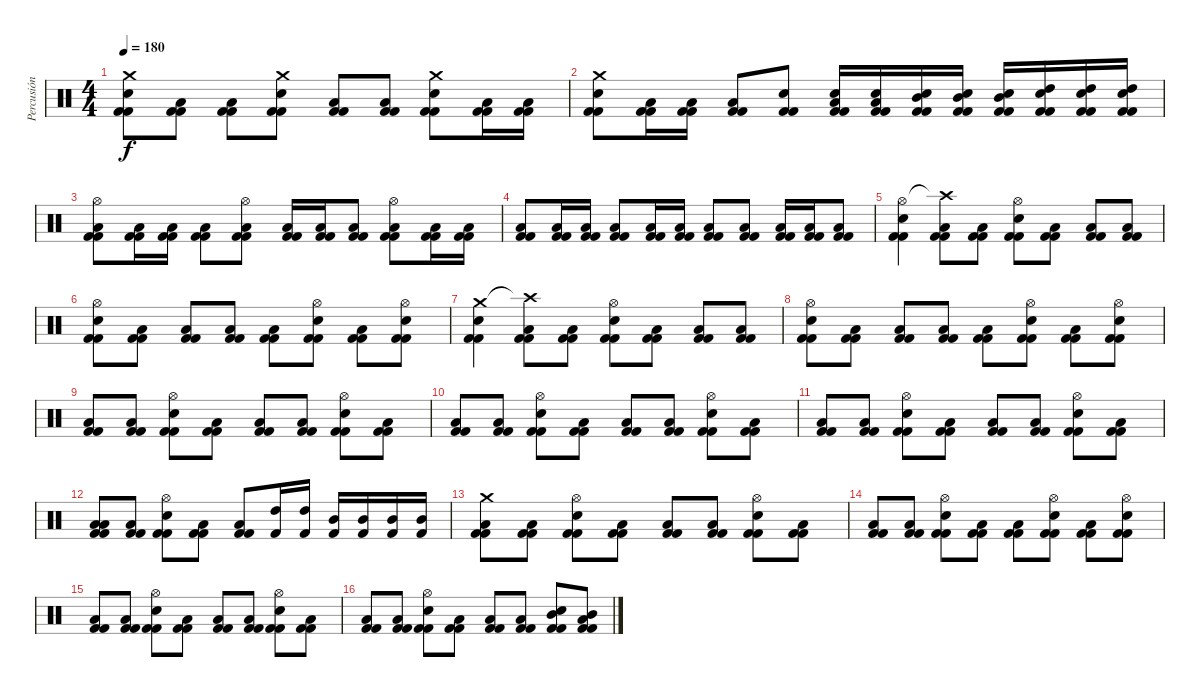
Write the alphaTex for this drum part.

\track ("Percusión" "Percusión") {instrument percussion}
\staff {score}
\articulation defaults
\ts (4 4)
\tempo 180
\clef neutral
\ks c
("Crash medium (hit)" "Kick (hit) 2" "Kick (hit) 2" "Snare (hit) 2").8{dy f} ("Kick (hit) 2" "Kick (hit) 2" "Low Floor Tom (hit)").8 ("Kick (hit) 2" "Kick (hit) 2" "Low Floor Tom (hit)").8 ("Crash medium (hit)" "Kick (hit) 2" "Kick (hit) 2" "Snare (hit) 2").8 ("Kick (hit) 2" "Kick (hit) 2" "Low Floor Tom (hit)").8 ("Kick (hit) 2" "Kick (hit) 2" "Low Floor Tom (hit)").8 ("Crash medium (hit)" "Kick (hit) 2" "Kick (hit) 2" "Snare (hit) 2").8 ("Kick (hit) 2" "Kick (hit) 2" "Low Floor Tom (hit)").16 ("Kick (hit) 2" "Kick (hit) 2" "Low Floor Tom (hit)").16 |
("Crash medium (hit)" "Kick (hit) 2" "Kick (hit) 2" "Snare (hit) 2").8 ("Kick (hit) 2" "Kick (hit) 2" "Low Floor Tom (hit)").16 ("Kick (hit) 2" "Kick (hit) 2" "Low Floor Tom (hit)").16 ("Kick (hit) 2" "Kick (hit) 2" "Low Floor Tom (hit)").8 ("Kick (hit) 2" "Kick (hit) 2" "Snare (hit) 2").8 ("Snare (hit) 2" "Kick (hit) 2" "Kick (hit) 2" "Low Tom (hit)").16 ("Snare (hit) 2" "Kick (hit) 2" "Kick (hit) 2" "Low Tom (hit)").16 ("Snare (hit) 2" "Kick (hit) 2" "Kick (hit) 2" "Mid Tom (hit)").16 ("Snare (hit) 2" "Kick (hit) 2" "Kick (hit) 2" "Mid Tom (hit)").16 ("Electric Snare (hit)" "Kick (hit) 2" "Kick (hit) 2" "Mid Tom (hit)").16 ("Electric Snare (hit)" "Kick (hit) 2" "Kick (hit) 2" "High Tom (hit)").16 ("Electric Snare (hit)" "Kick (hit) 2" "Kick (hit) 2" "High Tom (hit)").16 ("Electric Snare (hit)" "Kick (hit) 2" "Kick (hit) 2" "High Tom (hit)").16 |
("Hi-Hat (open)" "Kick (hit) 2" "Kick (hit) 2" "Low Floor Tom (hit)").8 ("Kick (hit) 2" "Kick (hit) 2" "Low Floor Tom (hit)").16 ("Kick (hit) 2" "Kick (hit) 2" "Low Floor Tom (hit)").16 ("Kick (hit) 2" "Kick (hit) 2" "Low Floor Tom (hit)").8 ("Hi-Hat (open)" "Kick (hit) 2" "Kick (hit) 2" "Low Floor Tom (hit)").8 ("Kick (hit) 2" "Kick (hit) 2" "Low Floor Tom (hit)").16 ("Kick (hit) 2" "Kick (hit) 2" "Low Floor Tom (hit)").16 ("Kick (hit) 2" "Kick (hit) 2" "Low Floor Tom (hit)").8 ("Hi-Hat (open)" "Kick (hit) 2" "Kick (hit) 2" "Low Floor Tom (hit)").8 ("Kick (hit) 2" "Kick (hit) 2" "Low Floor Tom (hit)").16 ("Kick (hit) 2" "Kick (hit) 2" "Low Floor Tom (hit)").16 |
("Kick (hit) 2" "Kick (hit) 2" "Low Floor Tom (hit)").8 ("Kick (hit) 2" "Kick (hit) 2" "Low Floor Tom (hit)").16 ("Kick (hit) 2" "Kick (hit) 2" "Low Floor Tom (hit)").16 ("Kick (hit) 2" "Kick (hit) 2" "Low Floor Tom (hit)").8 ("Kick (hit) 2" "Kick (hit) 2" "Low Floor Tom (hit)").16 ("Kick (hit) 2" "Kick (hit) 2" "Low Floor Tom (hit)").16 ("Kick (hit) 2" "Kick (hit) 2" "Low Floor Tom (hit)").8 ("Kick (hit) 2" "Kick (hit) 2" "Low Floor Tom (hit)").8 ("Kick (hit) 2" "Kick (hit) 2" "Low Floor Tom (hit)").16 ("Kick (hit) 2" "Kick (hit) 2" "Low Floor Tom (hit)").16 ("Kick (hit) 2" "Kick (hit) 2" "Low Floor Tom (hit)").8 |
("Hi-Hat (open)" "Kick (hit) 2" "Kick (hit) 2" "Snare (hit) 2").4 ("Crash high (hit)"{t} "Kick (hit) 2" "Kick (hit) 2" "Low Floor Tom (hit)").8 ("Kick (hit) 2" "Kick (hit) 2" "Low Floor Tom (hit)").8 ("Hi-Hat (open)" "Kick (hit) 2" "Kick (hit) 2" "Snare (hit) 2").8 ("Kick (hit) 2" "Kick (hit) 2" "Low Floor Tom (hit)").8 ("Kick (hit) 2" "Kick (hit) 2" "Low Floor Tom (hit)").8 ("Kick (hit) 2" "Kick (hit) 2" "Low Floor Tom (hit)").8 |
("Hi-Hat (open)" "Kick (hit) 2" "Kick (hit) 2" "Snare (hit) 2").8 ("Kick (hit) 2" "Kick (hit) 2" "Low Floor Tom (hit)").8 ("Kick (hit) 2" "Kick (hit) 2" "Low Floor Tom (hit)").8 ("Kick (hit) 2" "Kick (hit) 2" "Low Floor Tom (hit)").8 ("Kick (hit) 2" "Kick (hit) 2" "Low Floor Tom (hit)").8 ("Hi-Hat (open)" "Kick (hit) 2" "Kick (hit) 2" "Snare (hit) 2").8 ("Kick (hit) 2" "Kick (hit) 2" "Low Floor Tom (hit)").8 ("Hi-Hat (open)" "Kick (hit) 2" "Kick (hit) 2" "Snare (hit) 2").8 |
("Crash medium (hit)" "Kick (hit) 2" "Kick (hit) 2" "Snare (hit) 2").4 ("Crash high (hit)"{t} "Kick (hit) 2" "Kick (hit) 2" "Low Floor Tom (hit)").8 ("Kick (hit) 2" "Kick (hit) 2" "Low Floor Tom (hit)").8 ("Hi-Hat (open)" "Kick (hit) 2" "Kick (hit) 2" "Snare (hit) 2").8 ("Kick (hit) 2" "Kick (hit) 2" "Low Floor Tom (hit)").8 ("Kick (hit) 2" "Kick (hit) 2" "Low Floor Tom (hit)").8 ("Kick (hit) 2" "Kick (hit) 2" "Low Floor Tom (hit)").8 |
("Hi-Hat (open)" "Kick (hit) 2" "Kick (hit) 2" "Snare (hit) 2").8 ("Kick (hit) 2" "Kick (hit) 2" "Low Floor Tom (hit)").8 ("Kick (hit) 2" "Kick (hit) 2" "Low Floor Tom (hit)").8 ("Kick (hit) 2" "Kick (hit) 2" "Low Floor Tom (hit)").8 ("Kick (hit) 2" "Kick (hit) 2" "Low Floor Tom (hit)").8 ("Hi-Hat (open)" "Kick (hit) 2" "Kick (hit) 2" "Snare (hit) 2").8 ("Kick (hit) 2" "Kick (hit) 2" "Low Floor Tom (hit)").8 ("Hi-Hat (open)" "Kick (hit) 2" "Kick (hit) 2" "Snare (hit) 2").8 |
("Kick (hit) 2" "Kick (hit) 2" "Low Floor Tom (hit)").8 ("Kick (hit) 2" "Kick (hit) 2" "Low Floor Tom (hit)").8 ("Hi-Hat (open)" "Kick (hit) 2" "Kick (hit) 2" "Snare (hit) 2").8 ("Kick (hit) 2" "Kick (hit) 2" "Low Floor Tom (hit)").8 ("Kick (hit) 2" "Kick (hit) 2" "Low Floor Tom (hit)").8 ("Kick (hit) 2" "Kick (hit) 2" "Low Floor Tom (hit)").8 ("Hi-Hat (open)" "Kick (hit) 2" "Kick (hit) 2" "Snare (hit) 2").8 ("Kick (hit) 2" "Kick (hit) 2" "Low Floor Tom (hit)").8 |
("Kick (hit) 2" "Kick (hit) 2" "Low Floor Tom (hit)").8 ("Kick (hit) 2" "Kick (hit) 2" "Low Floor Tom (hit)").8 ("Hi-Hat (open)" "Kick (hit) 2" "Kick (hit) 2" "Snare (hit) 2").8 ("Kick (hit) 2" "Kick (hit) 2" "Low Floor Tom (hit)").8 ("Kick (hit) 2" "Kick (hit) 2" "Low Floor Tom (hit)").8 ("Kick (hit) 2" "Kick (hit) 2" "Low Floor Tom (hit)").8 ("Hi-Hat (open)" "Kick (hit) 2" "Kick (hit) 2" "Snare (hit) 2").8 ("Kick (hit) 2" "Kick (hit) 2" "Low Floor Tom (hit)").8 |
("Kick (hit) 2" "Kick (hit) 2" "Low Floor Tom (hit)").8 ("Kick (hit) 2" "Kick (hit) 2" "Low Floor Tom (hit)").8 ("Hi-Hat (open)" "Kick (hit) 2" "Kick (hit) 2" "Snare (hit) 2").8 ("Kick (hit) 2" "Kick (hit) 2" "Low Floor Tom (hit)").8 ("Kick (hit) 2" "Kick (hit) 2" "Low Floor Tom (hit)").8 ("Kick (hit) 2" "Kick (hit) 2" "Low Floor Tom (hit)").8 ("Hi-Hat (open)" "Kick (hit) 2" "Kick (hit) 2" "Snare (hit) 2").8 ("Kick (hit) 2" "Kick (hit) 2" "Low Floor Tom (hit)").8 |
("Low Floor Tom (hit)" "Kick (hit) 2" "Kick (hit) 2" "Low Floor Tom (hit)").8 ("Kick (hit) 2" "Kick (hit) 2" "Low Floor Tom (hit)").8 ("Hi-Hat (open)" "Kick (hit) 2" "Kick (hit) 2" "Snare (hit) 2").8 ("Kick (hit) 2" "Kick (hit) 2" "Low Floor Tom (hit)").8 ("Kick (hit) 2" "Kick (hit) 2" "Low Floor Tom (hit)").8 ("Kick (hit) 2" "High Tom (hit)").16 ("Kick (hit) 2" "High Tom (hit)").16 ("Kick (hit) 2" "Mid Tom (hit)").16 ("Kick (hit) 2" "Mid Tom (hit)").16 ("Kick (hit) 2" "Mid Tom (hit)").16 ("Kick (hit) 2" "Mid Tom (hit)").16 |
("Crash medium (hit)" "Kick (hit) 2" "Kick (hit) 2" "Low Floor Tom (hit)").8 ("Kick (hit) 2" "Kick (hit) 2" "Low Floor Tom (hit)").8 ("Hi-Hat (open)" "Kick (hit) 2" "Kick (hit) 2" "Snare (hit) 2").8 ("Kick (hit) 2" "Kick (hit) 2" "Low Floor Tom (hit)").8 ("Kick (hit) 2" "Kick (hit) 2" "Low Floor Tom (hit)").8 ("Kick (hit) 2" "Kick (hit) 2" "Low Floor Tom (hit)").8 ("Hi-Hat (open)" "Kick (hit) 2" "Kick (hit) 2" "Snare (hit) 2").8 ("Kick (hit) 2" "Kick (hit) 2" "Low Floor Tom (hit)").8 |
("Kick (hit) 2" "Kick (hit) 2" "Low Floor Tom (hit)").8 ("Kick (hit) 2" "Kick (hit) 2" "Low Floor Tom (hit)").8 ("Hi-Hat (open)" "Kick (hit) 2" "Kick (hit) 2" "Snare (hit) 2").8 ("Kick (hit) 2" "Kick (hit) 2" "Low Floor Tom (hit)").8 ("Kick (hit) 2" "Kick (hit) 2" "Low Floor Tom (hit)").8 ("Hi-Hat (open)" "Kick (hit) 2" "Kick (hit) 2" "Snare (hit) 2").8 ("Kick (hit) 2" "Kick (hit) 2" "Low Floor Tom (hit)").8 ("Hi-Hat (open)" "Kick (hit) 2" "Kick (hit) 2" "Snare (hit) 2").8 |
("Kick (hit) 2" "Kick (hit) 2" "Low Floor Tom (hit)").8 ("Kick (hit) 2" "Kick (hit) 2" "Low Floor Tom (hit)").8 ("Hi-Hat (open)" "Kick (hit) 2" "Kick (hit) 2" "Snare (hit) 2").8 ("Kick (hit) 2" "Kick (hit) 2" "Low Floor Tom (hit)").8 ("Kick (hit) 2" "Kick (hit) 2" "Low Floor Tom (hit)").8 ("Kick (hit) 2" "Kick (hit) 2" "Low Floor Tom (hit)").8 ("Hi-Hat (open)" "Kick (hit) 2" "Kick (hit) 2" "Snare (hit) 2").8 ("Kick (hit) 2" "Kick (hit) 2" "Low Floor Tom (hit)").8 |
("Kick (hit) 2" "Kick (hit) 2" "Low Floor Tom (hit)").8 ("Kick (hit) 2" "Kick (hit) 2" "Low Floor Tom (hit)").8 ("Hi-Hat (open)" "Kick (hit) 2" "Kick (hit) 2" "Snare (hit) 2").8 ("Kick (hit) 2" "Kick (hit) 2" "Low Floor Tom (hit)").8 ("Kick (hit) 2" "Kick (hit) 2" "Low Floor Tom (hit)").8 ("Kick (hit) 2" "Kick (hit) 2" "Low Floor Tom (hit)").8 ("Mid Tom (hit)" "Kick (hit) 2" "Kick (hit) 2" "Snare (hit) 2").8 ("Mid Tom (hit)" "Kick (hit) 2" "Kick (hit) 2" "Low Floor Tom (hit)").8
